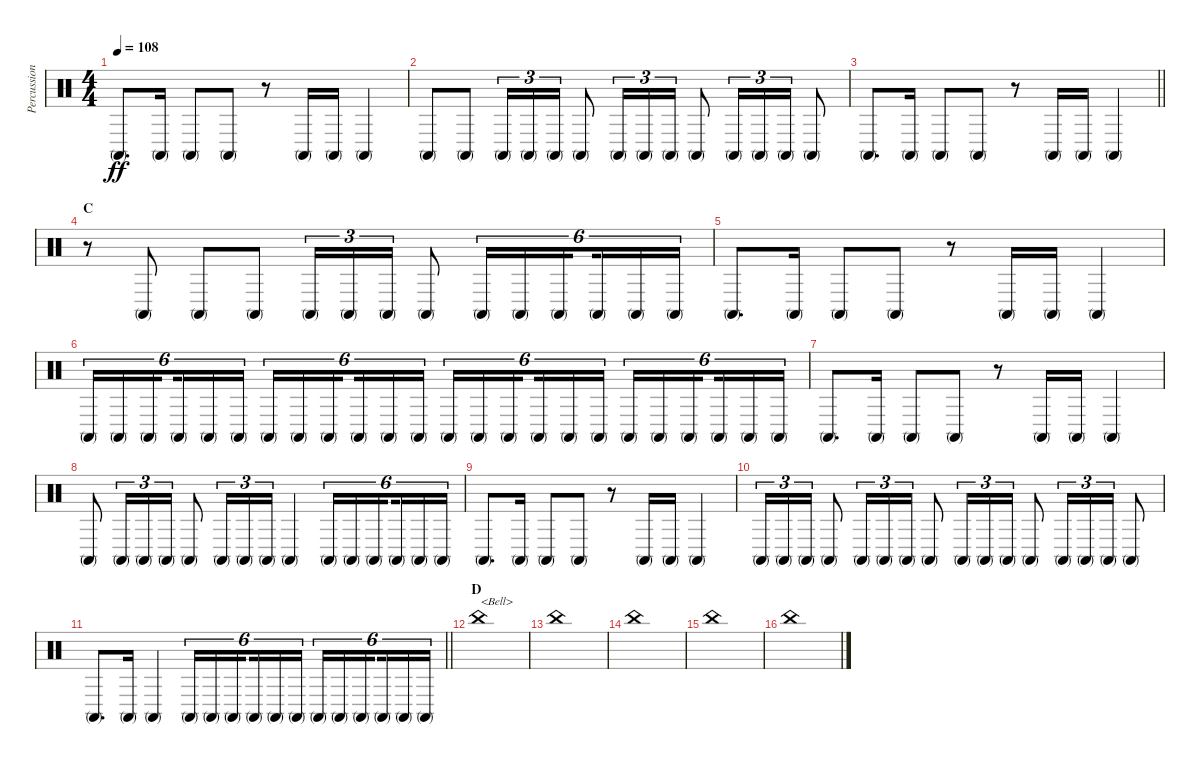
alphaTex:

\track ("Percussion" "Percussion") {instrument percussion}
\staff {score}
\articulation defaults
\ts (4 4)
\tempo 108
\clef neutral
\ks c "Conga high (mute)".8{d dy ff} "Conga high (mute)".16 "Conga high (mute)".8 "Conga high (mute)".8
r.8 "Conga high (mute)".16 "Conga high (mute)".16 "Conga high (mute)".4 |
"Conga high (mute)".8 "Conga high (mute)".8 "Conga high (mute)".16{tu (3 2)} "Conga high (mute)".16{tu (3 2)} "Conga high (mute)".16{tu (3 2)} "Conga high (mute)".8 "Conga high (mute)".16{tu (3 2)} "Conga high (mute)".16{tu (3 2)} "Conga high (mute)".16{tu (3 2)} "Conga high (mute)".8 "Conga high (mute)".16{tu (3 2)} "Conga high (mute)".16{tu (3 2)} "Conga high (mute)".16{tu (3 2)} "Conga high (mute)".8 |
\barLineRight lightlight "Conga high (mute)".8{d} "Conga high (mute)".16 "Conga high (mute)".8 "Conga high (mute)".8
r.8 "Conga high (mute)".16 "Conga high (mute)".16 "Conga high (mute)".4 |
\section ("" "C")
r.8 "Conga high (mute)".8 "Conga high (mute)".8 "Conga high (mute)".8 "Conga high (mute)".16{tu (3 2)} "Conga high (mute)".16{tu (3 2)} "Conga high (mute)".16{tu (3 2)} "Conga high (mute)".8 "Conga high (mute)".16{tu (6 4)} "Conga high (mute)".16{tu (6 4)} "Conga high (mute)".16{tu (6 4) beam splitsecondary} "Conga high (mute)".16{tu (6 4)} "Conga high (mute)".16{tu (6 4)} "Conga high (mute)".16{tu (6 4)} |
"Conga high (mute)".8{d} "Conga high (mute)".16 "Conga high (mute)".8 "Conga high (mute)".8 r.8 "Conga high (mute)".16 "Conga high (mute)".16 "Conga high (mute)".4 |
"Conga high (mute)".16{tu (6 4)} "Conga high (mute)".16{tu (6 4)} "Conga high (mute)".16{tu (6 4) beam splitsecondary} "Conga high (mute)".16{tu (6 4)} "Conga high (mute)".16{tu (6 4)} "Conga high (mute)".16{tu (6 4)} "Conga high (mute)".16{tu (6 4)} "Conga high (mute)".16{tu (6 4)} "Conga high (mute)".16{tu (6 4) beam splitsecondary} "Conga high (mute)".16{tu (6 4)} "Conga high (mute)".16{tu (6 4)} "Conga high (mute)".16{tu (6 4)} "Conga high (mute)".16{tu (6 4)} "Conga high (mute)".16{tu (6 4)} "Conga high (mute)".16{tu (6 4) beam splitsecondary} "Conga high (mute)".16{tu (6 4)} "Conga high (mute)".16{tu (6 4)} "Conga high (mute)".16{tu (6 4)} "Conga high (mute)".16{tu (6 4)} "Conga high (mute)".16{tu (6 4)} "Conga high (mute)".16{tu (6 4) beam splitsecondary} "Conga high (mute)".16{tu (6 4)} "Conga high (mute)".16{tu (6 4)} "Conga high (mute)".16{tu (6 4)} |
"Conga high (mute)".8{d} "Conga high (mute)".16 "Conga high (mute)".8 "Conga high (mute)".8 r.8 "Conga high (mute)".16 "Conga high (mute)".16 "Conga high (mute)".4 |
"Conga high (mute)".8 "Conga high (mute)".16{tu (3 2)} "Conga high (mute)".16{tu (3 2)} "Conga high (mute)".16{tu (3 2)} "Conga high (mute)".8 "Conga high (mute)".16{tu (3 2)} "Conga high (mute)".16{tu (3 2)} "Conga high (mute)".16{tu (3 2)} "Conga high (mute)".4 "Conga high (mute)".16{tu (6 4)} "Conga high (mute)".16{tu (6 4)} "Conga high (mute)".16{tu (6 4) beam splitsecondary} "Conga high (mute)".16{tu (6 4)} "Conga high (mute)".16{tu (6 4)} "Conga high (mute)".16{tu (6 4)} |
"Conga high (mute)".8{d} "Conga high (mute)".16 "Conga high (mute)".8 "Conga high (mute)".8 r.8 "Conga high (mute)".16 "Conga high (mute)".16 "Conga high (mute)".4 |
"Conga high (mute)".16{tu (3 2)} "Conga high (mute)".16{tu (3 2)} "Conga high (mute)".16{tu (3 2)} "Conga high (mute)".8 "Conga high (mute)".16{tu (3 2)} "Conga high (mute)".16{tu (3 2)} "Conga high (mute)".16{tu (3 2)} "Conga high (mute)".8 "Conga high (mute)".16{tu (3 2)} "Conga high (mute)".16{tu (3 2)} "Conga high (mute)".16{tu (3 2)} "Conga high (mute)".8 "Conga high (mute)".16{tu (3 2)} "Conga high (mute)".16{tu (3 2)} "Conga high (mute)".16{tu (3 2)} "Conga high (mute)".8 |
\barLineRight lightlight "Conga high (mute)".8{d} "Conga high (mute)".16 "Conga high (mute)".4 "Conga high (mute)".16{tu (6 4)} "Conga high (mute)".16{tu (6 4)} "Conga high (mute)".16{tu (6 4) beam splitsecondary} "Conga high (mute)".16{tu (6 4)} "Conga high (mute)".16{tu (6 4)} "Conga high (mute)".16{tu (6 4)} "Conga high (mute)".16{tu (6 4)} "Conga high (mute)".16{tu (6 4)} "Conga high (mute)".16{tu (6 4) beam splitsecondary} "Conga high (mute)".16{tu (6 4)} "Conga high (mute)".16{tu (6 4)} "Conga high (mute)".16{tu (6 4)}
|
\section ("" "D")
"China (hit)".1{txt "<Bell>"} |
"China (hit)".1 |
"China (hit)".1 |
"China (hit)".1 |
"China (hit)".1
